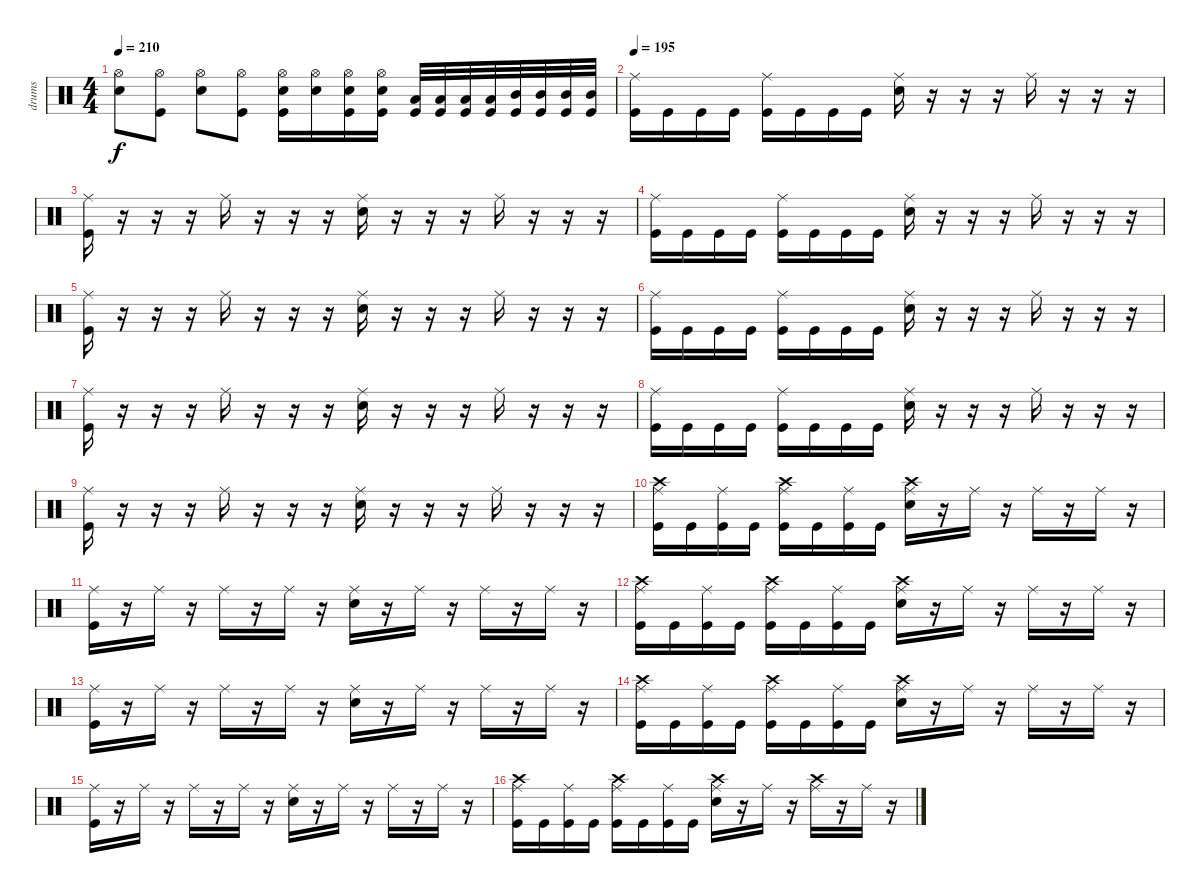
\track ("drums" "drums") {instrument percussion}
\staff {score}
\articulation defaults
\ts (4 4)
\tempo 210
\clef neutral
\ks c
("Hi-Hat (open)" "Electric Snare (hit)").8{dy f} ("Hi-Hat (open)" "Kick (hit)").8 ("Hi-Hat (open)" "Electric Snare (hit)").8 ("Hi-Hat (open)" "Kick (hit)").8 ("Hi-Hat (open)" "Electric Snare (hit)" "Kick (hit)").16 ("Hi-Hat (open)" "Electric Snare (hit)").16 ("Hi-Hat (open)" "Electric Snare (hit)" "Kick (hit)").16 ("Hi-Hat (open)" "Electric Snare (hit)" "Kick (hit)").16 ("Low Tom (hit)" "Kick (hit)").32 ("Low Tom (hit)" "Kick (hit)").32 ("Low Tom (hit)" "Kick (hit)").32 ("Low Tom (hit)" "Kick (hit)").32 ("Mid Tom (hit)" "Kick (hit)").32 ("Mid Tom (hit)" "Kick (hit)").32 ("Mid Tom (hit)" "Kick (hit)").32 ("Mid Tom (hit)" "Kick (hit)").32 |
\tempo 195
("Ride (middle)" "Kick (hit)").16 "Kick (hit)".16 "Kick (hit)".16 "Kick (hit)".16 ("Ride (middle)" "Kick (hit)").16 "Kick (hit)".16 "Kick (hit)".16 "Kick (hit)".16 ("Ride (middle)" "Electric Snare (hit)").16 r.16 r.16 r.16 "Ride (middle)".16 r.16 r.16 r.16 |
("Ride (middle)" "Kick (hit)").16 r.16 r.16 r.16 "Ride (middle)".16 r.16 r.16 r.16 ("Ride (middle)" "Electric Snare (hit)").16 r.16 r.16 r.16 "Ride (middle)".16 r.16 r.16 r.16 |
("Ride (middle)" "Kick (hit)").16 "Kick (hit)".16 "Kick (hit)".16 "Kick (hit)".16 ("Ride (middle)" "Kick (hit)").16 "Kick (hit)".16 "Kick (hit)".16 "Kick (hit)".16 ("Ride (middle)" "Electric Snare (hit)").16 r.16 r.16 r.16 "Ride (middle)".16 r.16 r.16 r.16 |
("Ride (middle)" "Kick (hit)").16 r.16 r.16 r.16 "Ride (middle)".16 r.16 r.16 r.16 ("Ride (middle)" "Electric Snare (hit)").16 r.16 r.16 r.16 "Ride (middle)".16 r.16 r.16 r.16 |
("Ride (middle)" "Kick (hit)").16 "Kick (hit)".16 "Kick (hit)".16 "Kick (hit)".16 ("Ride (middle)" "Kick (hit)").16 "Kick (hit)".16 "Kick (hit)".16 "Kick (hit)".16 ("Ride (middle)" "Electric Snare (hit)").16 r.16 r.16 r.16 "Ride (middle)".16 r.16 r.16 r.16 |
("Ride (middle)" "Kick (hit)").16 r.16 r.16 r.16 "Ride (middle)".16 r.16 r.16 r.16 ("Ride (middle)" "Electric Snare (hit)").16 r.16 r.16 r.16 "Ride (middle)".16 r.16 r.16 r.16 |
("Ride (middle)" "Kick (hit)").16 "Kick (hit)".16 "Kick (hit)".16 "Kick (hit)".16 ("Ride (middle)" "Kick (hit)").16 "Kick (hit)".16 "Kick (hit)".16 "Kick (hit)".16 ("Ride (middle)" "Electric Snare (hit)").16 r.16 r.16 r.16 "Ride (middle)".16 r.16 r.16 r.16 |
("Ride (middle)" "Kick (hit)").16 r.16 r.16 r.16 "Ride (middle)".16 r.16 r.16 r.16 ("Ride (middle)" "Electric Snare (hit)").16 r.16 r.16 r.16 "Ride (middle)".16 r.16 r.16 r.16 |
("Ride (middle)" "Crash high (hit)" "Kick (hit)").16 "Kick (hit)".16 ("Ride (middle)" "Kick (hit)").16 "Kick (hit)".16 ("Ride (middle)" "Crash high (hit)" "Kick (hit)").16 "Kick (hit)".16 ("Ride (middle)" "Kick (hit)").16 "Kick (hit)".16 ("Ride (middle)" "Crash high (hit)" "Electric Snare (hit)").16 r.16 "Ride (middle)".16 r.16 "Ride (middle)".16 r.16 "Ride (middle)".16 r.16 |
("Ride (middle)" "Kick (hit)").16 r.16 "Ride (middle)".16 r.16 "Ride (middle)".16 r.16 "Ride (middle)".16 r.16 ("Ride (middle)" "Electric Snare (hit)").16 r.16 "Ride (middle)".16 r.16 "Ride (middle)".16 r.16 "Ride (middle)".16 r.16 |
("Ride (middle)" "Crash high (hit)" "Kick (hit)").16 "Kick (hit)".16 ("Ride (middle)" "Kick (hit)").16 "Kick (hit)".16 ("Ride (middle)" "Crash high (hit)" "Kick (hit)").16 "Kick (hit)".16 ("Ride (middle)" "Kick (hit)").16 "Kick (hit)".16 ("Ride (middle)" "Crash high (hit)" "Electric Snare (hit)").16 r.16 "Ride (middle)".16 r.16 "Ride (middle)".16 r.16 "Ride (middle)".16 r.16 |
("Ride (middle)" "Kick (hit)").16 r.16 "Ride (middle)".16 r.16 "Ride (middle)".16 r.16 "Ride (middle)".16 r.16 ("Ride (middle)" "Electric Snare (hit)").16 r.16 "Ride (middle)".16 r.16 "Ride (middle)".16 r.16 "Ride (middle)".16 r.16 |
("Ride (middle)" "Crash high (hit)" "Kick (hit)").16 "Kick (hit)".16 ("Ride (middle)" "Kick (hit)").16 "Kick (hit)".16 ("Ride (middle)" "Crash high (hit)" "Kick (hit)").16 "Kick (hit)".16 ("Ride (middle)" "Kick (hit)").16 "Kick (hit)".16 ("Ride (middle)" "Crash high (hit)" "Electric Snare (hit)").16 r.16 "Ride (middle)".16 r.16 "Ride (middle)".16 r.16 "Ride (middle)".16 r.16 |
("Ride (middle)" "Kick (hit)").16 r.16 "Ride (middle)".16 r.16 "Ride (middle)".16 r.16 "Ride (middle)".16 r.16 ("Ride (middle)" "Electric Snare (hit)").16 r.16 "Ride (middle)".16 r.16 "Ride (middle)".16 r.16 "Ride (middle)".16 r.16 |
("Ride (middle)" "Crash high (hit)" "Kick (hit)").16 "Kick (hit)".16 ("Ride (middle)" "Kick (hit)").16 "Kick (hit)".16 ("Ride (middle)" "Crash high (hit)" "Kick (hit)").16 "Kick (hit)".16 ("Ride (middle)" "Kick (hit)").16 "Kick (hit)".16 ("Ride (middle)" "Crash high (hit)" "Electric Snare (hit)").16 r.16 "Ride (middle)".16 r.16 ("Ride (middle)" "Crash high (hit)").16 r.16 "Ride (middle)".16 r.16
